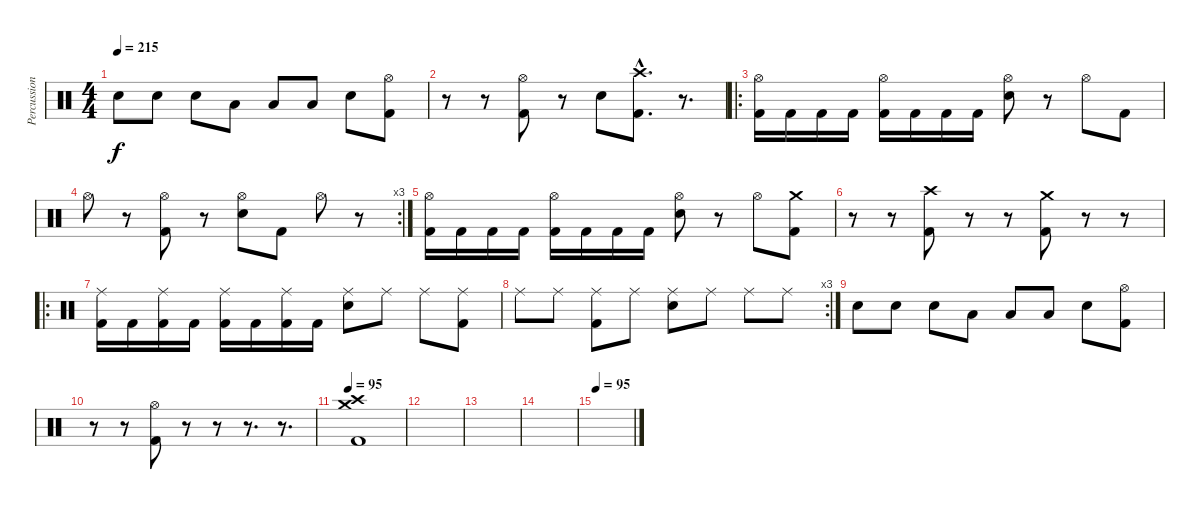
\track ("Percussions" "Percussion") {instrument percussion}
\staff {score}
\articulation defaults
\ts (4 4)
\tempo 215
\clef neutral
\ks c "Electric Snare (hit)".8{dy f} "Electric Snare (hit)".8 "Electric Snare (hit)".8 "Low Tom (hit)".8 "Low Tom (hit)".8 "Low Tom (hit)".8 "Electric Snare (hit)".8
("Hi-Hat (open)" "Kick (hit) 2").8 |
r.8 r.8 ("Hi-Hat (open)" "Kick (hit) 2").8 r.8 "Electric Snare (hit)".8 ("Crash high (hit)"{hac} "Kick (hit) 2"{hac}).8{d} r.8{d} |
\ro
("Hi-Hat (open)" "Kick (hit) 2").16 "Kick (hit) 2".16 "Kick (hit) 2".16 "Kick (hit) 2".16 ("Hi-Hat (open)" "Kick (hit) 2").16 "Kick (hit) 2".16 "Kick (hit) 2".16 "Kick (hit) 2".16 ("Hi-Hat (open)" "Electric Snare (hit)").8 r.8 "Hi-Hat (open)".8 "Kick (hit) 2".8 |
\rc 3 "Hi-Hat (open)".8
r.8 ("Hi-Hat (open)" "Kick (hit) 2").8 r.8 ("Hi-Hat (open)" "Electric Snare (hit)").8 "Kick (hit) 2".8 "Hi-Hat (open)".8 r.8 |
("Hi-Hat (open)" "Kick (hit) 2").16 "Kick (hit) 2".16 "Kick (hit) 2".16 "Kick (hit) 2".16 ("Hi-Hat (open)" "Kick (hit) 2").16 "Kick (hit) 2".16 "Kick (hit) 2".16 "Kick (hit) 2".16 ("Hi-Hat (open)" "Electric Snare (hit)").8 r.8 "Hi-Hat (open)".8 ("Crash medium (hit)" "Kick (hit) 2").8 |
r.8 r.8 ("Crash high (hit)" "Kick (hit) 2").8 r.8 r.8 ("Crash medium (hit)" "Kick (hit) 2").8 r.8 r.8 |
\ro
("Ride (middle)" "Kick (hit) 2").16 "Kick (hit) 2".16 ("Ride (middle)" "Kick (hit) 2").16 "Kick (hit) 2".16 ("Ride (middle)" "Kick (hit) 2").16 "Kick (hit) 2".16 ("Ride (middle)" "Kick (hit) 2").16 "Kick (hit) 2".16 ("Ride (middle)" "Electric Snare (hit)").8 "Ride (middle)".8 "Ride (middle)".8 ("Ride (middle)" "Kick (hit) 2").8 |
\rc 3 "Ride (middle)".8 "Ride (middle)".8
("Ride (middle)" "Kick (hit) 2").8 "Ride (middle)".8 ("Ride (middle)" "Electric Snare (hit)").8 "Ride (middle)".8 "Ride (middle)".8 "Ride (middle)".8 |
"Electric Snare (hit)".8 "Electric Snare (hit)".8 "Electric Snare (hit)".8 "Low Tom (hit)".8 "Low Tom (hit)".8 "Low Tom (hit)".8 "Electric Snare (hit)".8 ("Hi-Hat (open)" "Kick (hit) 2").8 |
r.8 r.8 ("Hi-Hat (open)" "Kick (hit) 2").8 r.8 r.8 r.8{d} r.8{d} |
\tempo 95
("Crash medium (hit)" "Crash high (hit)" "Kick (hit) 2").1 |
|
|
|
\tempo 95
